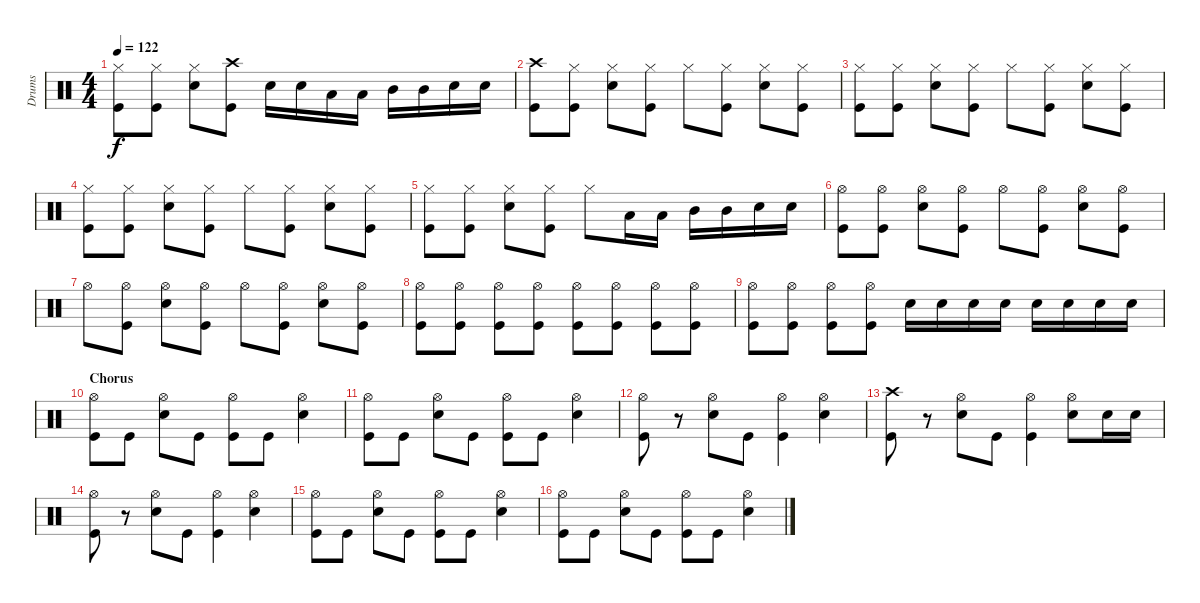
\track ("Drums" "Drums") {instrument percussion}
\staff {score}
\articulation defaults
\ts (4 4)
\tempo 122
\clef neutral
\ks c
("Hi-Hat (closed)" "Kick (hit)").8{dy f} ("Hi-Hat (closed)" "Kick (hit)").8 ("Hi-Hat (closed)" "Snare (hit) 2").8 ("Crash high (hit)" "Kick (hit)").8 "Snare (hit) 2".16 "Snare (hit) 2".16 "Low Tom (hit)".16 "Low Tom (hit)".16 "Mid Tom (hit)".16 "Mid Tom (hit)".16 "Snare (hit) 2".16 "Snare (hit) 2".16 |
("Crash high (hit)" "Kick (hit)").8 ("Hi-Hat (closed)" "Kick (hit)").8 ("Hi-Hat (closed)" "Snare (hit) 2").8 ("Hi-Hat (closed)" "Kick (hit)").8 "Hi-Hat (closed)".8 ("Hi-Hat (closed)" "Kick (hit)").8 ("Hi-Hat (closed)" "Snare (hit) 2").8 ("Hi-Hat (closed)" "Kick (hit)").8 |
("Hi-Hat (closed)" "Kick (hit)").8 ("Hi-Hat (closed)" "Kick (hit)").8 ("Hi-Hat (closed)" "Snare (hit) 2").8 ("Hi-Hat (closed)" "Kick (hit)").8 "Hi-Hat (closed)".8 ("Hi-Hat (closed)" "Kick (hit)").8 ("Hi-Hat (closed)" "Snare (hit) 2").8 ("Hi-Hat (closed)" "Kick (hit)").8 |
("Hi-Hat (closed)" "Kick (hit)").8 ("Hi-Hat (closed)" "Kick (hit)").8 ("Hi-Hat (closed)" "Snare (hit) 2").8 ("Hi-Hat (closed)" "Kick (hit)").8 "Hi-Hat (closed)".8 ("Hi-Hat (closed)" "Kick (hit)").8 ("Hi-Hat (closed)" "Snare (hit) 2").8 ("Hi-Hat (closed)" "Kick (hit)").8 |
("Hi-Hat (closed)" "Kick (hit)").8 ("Hi-Hat (closed)" "Kick (hit)").8 ("Hi-Hat (closed)" "Snare (hit) 2").8 ("Hi-Hat (closed)" "Kick (hit)").8 "Hi-Hat (closed)".8 "Low Tom (hit)".16 "Low Tom (hit)".16 "Mid Tom (hit)".16 "Mid Tom (hit)".16 "Snare (hit) 2".16 "Snare (hit) 2".16 |
("Hi-Hat (open)" "Kick (hit)").8 ("Hi-Hat (open)" "Kick (hit)").8 ("Hi-Hat (open)" "Snare (hit) 2").8 ("Hi-Hat (open)" "Kick (hit)").8 "Hi-Hat (open)".8 ("Hi-Hat (open)" "Kick (hit)").8 ("Hi-Hat (open)" "Snare (hit) 2").8 ("Hi-Hat (open)" "Kick (hit)").8 |
"Hi-Hat (open)".8 ("Hi-Hat (open)" "Kick (hit)").8 ("Hi-Hat (open)" "Snare (hit) 2").8 ("Hi-Hat (open)" "Kick (hit)").8 "Hi-Hat (open)".8 ("Hi-Hat (open)" "Kick (hit)").8 ("Hi-Hat (open)" "Snare (hit) 2").8 ("Hi-Hat (open)" "Kick (hit)").8 |
("Hi-Hat (open)" "Kick (hit)").8 ("Hi-Hat (open)" "Kick (hit)").8 ("Hi-Hat (open)" "Kick (hit)").8 ("Hi-Hat (open)" "Kick (hit)").8 ("Hi-Hat (open)" "Kick (hit)").8 ("Hi-Hat (open)" "Kick (hit)").8 ("Hi-Hat (open)" "Kick (hit)").8 ("Hi-Hat (open)" "Kick (hit)").8 |
("Hi-Hat (open)" "Kick (hit)").8 ("Hi-Hat (open)" "Kick (hit)").8 ("Hi-Hat (open)" "Kick (hit)").8 ("Hi-Hat (open)" "Kick (hit)").8 "Snare (hit) 2".16 "Snare (hit) 2".16 "Snare (hit) 2".16 "Snare (hit) 2".16 "Snare (hit) 2".16 "Snare (hit) 2".16 "Snare (hit) 2".16 "Snare (hit) 2".16 |
\section ("" "Chorus")
("Hi-Hat (open)" "Kick (hit)").8 "Kick (hit)".8 ("Hi-Hat (open)" "Snare (hit) 2").8 "Kick (hit)".8 ("Hi-Hat (open)" "Kick (hit)").8 "Kick (hit)".8 ("Hi-Hat (open)" "Snare (hit) 2").4 |
("Hi-Hat (open)" "Kick (hit)").8 "Kick (hit)".8 ("Hi-Hat (open)" "Snare (hit) 2").8 "Kick (hit)".8 ("Hi-Hat (open)" "Kick (hit)").8 "Kick (hit)".8 ("Hi-Hat (open)" "Snare (hit) 2").4 |
("Hi-Hat (open)" "Kick (hit)").8 r.8 ("Hi-Hat (open)" "Snare (hit) 2").8 "Kick (hit)".8 ("Hi-Hat (open)" "Kick (hit)").4 ("Hi-Hat (open)" "Snare (hit) 2").4 |
("Crash high (hit)" "Kick (hit)").8 r.8 ("Hi-Hat (open)" "Snare (hit) 2").8 "Kick (hit)".8 ("Hi-Hat (open)" "Kick (hit)").4 ("Hi-Hat (open)" "Snare (hit) 2").8 "Snare (hit) 2".16 "Snare (hit) 2".16 |
("Hi-Hat (open)" "Kick (hit)").8 r.8 ("Hi-Hat (open)" "Snare (hit) 2").8 "Kick (hit)".8 ("Hi-Hat (open)" "Kick (hit)").4 ("Hi-Hat (open)" "Snare (hit) 2").4 |
("Hi-Hat (open)" "Kick (hit)").8 "Kick (hit)".8 ("Hi-Hat (open)" "Snare (hit) 2").8 "Kick (hit)".8 ("Hi-Hat (open)" "Kick (hit)").8 "Kick (hit)".8 ("Hi-Hat (open)" "Snare (hit) 2").4 |
("Hi-Hat (open)" "Kick (hit)").8 "Kick (hit)".8 ("Hi-Hat (open)" "Snare (hit) 2").8 "Kick (hit)".8 ("Hi-Hat (open)" "Kick (hit)").8 "Kick (hit)".8 ("Hi-Hat (open)" "Snare (hit) 2").4
